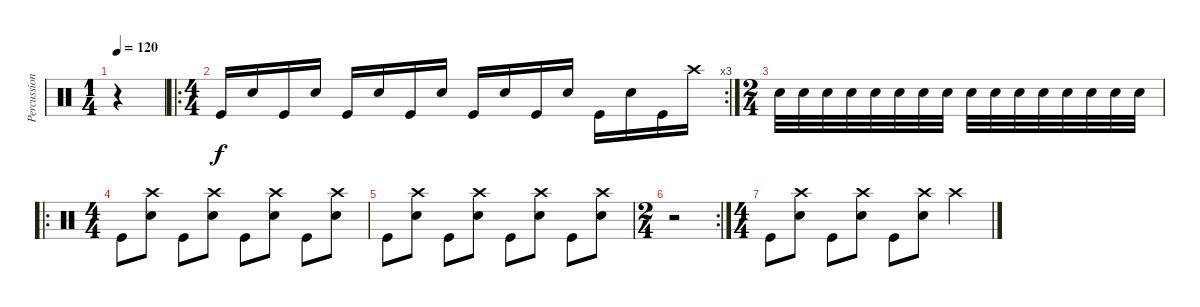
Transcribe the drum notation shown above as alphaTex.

\track ("Percussion" "Percussion") {instrument percussion}
\staff {score}
\articulation defaults
\ts (1 4)
\tempo 120
\clef neutral
\ks c
r.4{dy f} |
\ro
\rc 3
\ts (4 4)
"Kick (hit)".16 "Snare (hit) 2".16 "Kick (hit)".16 "Snare (hit) 2".16 "Kick (hit)".16 "Snare (hit) 2".16 "Kick (hit)".16 "Snare (hit) 2".16 "Kick (hit)".16 "Snare (hit) 2".16 "Kick (hit)".16 "Snare (hit) 2".16 "Kick (hit)".16 "Snare (hit) 2".16 "Kick (hit)".16 "Crash high (hit)".16 |
\ts (2 4)
"Snare (hit) 2".32 "Snare (hit) 2".32 "Snare (hit) 2".32 "Snare (hit) 2".32 "Snare (hit) 2".32 "Snare (hit) 2".32 "Snare (hit) 2".32 "Snare (hit) 2".32 "Snare (hit) 2".32 "Snare (hit) 2".32 "Snare (hit) 2".32 "Snare (hit) 2".32 "Snare (hit) 2".32 "Snare (hit) 2".32 "Snare (hit) 2".32 "Snare (hit) 2".32 |
\ro
\ts (4 4)
"Kick (hit)".8 ("Crash high (hit)" "Snare (hit) 2").8 "Kick (hit)".8 ("Crash high (hit)" "Snare (hit) 2").8 "Kick (hit)".8 ("Crash high (hit)" "Snare (hit) 2").8 "Kick (hit)".8 ("Crash high (hit)" "Snare (hit) 2").8 |
"Kick (hit)".8 ("Crash high (hit)" "Snare (hit) 2").8 "Kick (hit)".8 ("Crash high (hit)" "Snare (hit) 2").8 "Kick (hit)".8 ("Crash high (hit)" "Snare (hit) 2").8 "Kick (hit)".8 ("Crash high (hit)" "Snare (hit) 2").8 |
\rc 2
\ts (2 4)
r.2 |
\ts (4 4)
"Kick (hit)".8 ("Crash high (hit)" "Snare (hit) 2").8 "Kick (hit)".8 ("Crash high (hit)" "Snare (hit) 2").8 "Kick (hit)".8 ("Crash high (hit)" "Snare (hit) 2").8 "Crash high (hit)".4
